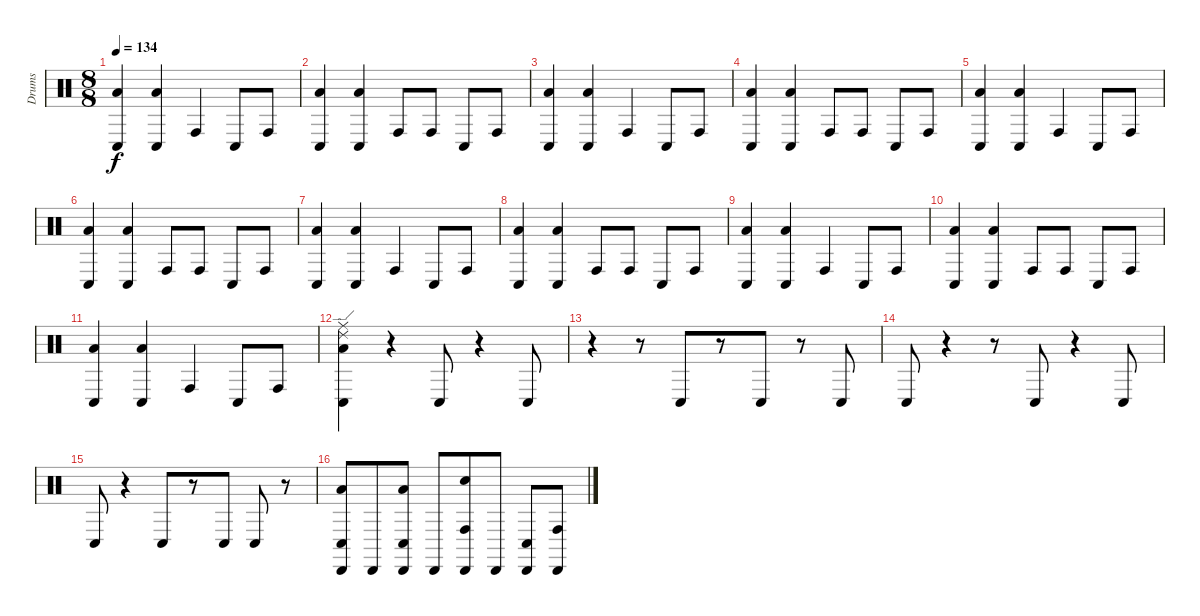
\track ("Drums" "Drums") {instrument percussion}
\staff {score}
\articulation defaults
\ts (8 8)
\tempo 134
\clef neutral
\ks c
("Low Tom (hit)" "Conga low (hit)").4{dy f} ("Low Tom (hit)" "Conga low (hit)").4 "Conga high (hit)".4 "Conga low (hit)".8 "Conga high (hit)".8 |
("Low Tom (hit)" "Conga low (hit)").4 ("Low Tom (hit)" "Conga low (hit)").4 "Conga high (hit)".8 "Conga high (hit)".8 "Conga low (hit)".8 "Conga high (hit)".8 |
("Low Tom (hit)" "Conga low (hit)").4 ("Low Tom (hit)" "Conga low (hit)").4 "Conga high (hit)".4 "Conga low (hit)".8 "Conga high (hit)".8 |
("Low Tom (hit)" "Conga low (hit)").4 ("Low Tom (hit)" "Conga low (hit)").4 "Conga high (hit)".8 "Conga high (hit)".8 "Conga low (hit)".8 "Conga high (hit)".8 |
("Low Tom (hit)" "Conga low (hit)").4 ("Low Tom (hit)" "Conga low (hit)").4 "Conga high (hit)".4 "Conga low (hit)".8 "Conga high (hit)".8 |
("Low Tom (hit)" "Conga low (hit)").4 ("Low Tom (hit)" "Conga low (hit)").4 "Conga high (hit)".8 "Conga high (hit)".8 "Conga low (hit)".8 "Conga high (hit)".8 |
("Low Tom (hit)" "Conga low (hit)").4 ("Low Tom (hit)" "Conga low (hit)").4 "Conga high (hit)".4 "Conga low (hit)".8 "Conga high (hit)".8 |
("Low Tom (hit)" "Conga low (hit)").4 ("Low Tom (hit)" "Conga low (hit)").4 "Conga high (hit)".8 "Conga high (hit)".8 "Conga low (hit)".8 "Conga high (hit)".8 |
("Low Tom (hit)" "Conga low (hit)").4 ("Low Tom (hit)" "Conga low (hit)").4 "Conga high (hit)".4 "Conga low (hit)".8 "Conga high (hit)".8 |
("Low Tom (hit)" "Conga low (hit)").4 ("Low Tom (hit)" "Conga low (hit)").4 "Conga high (hit)".8 "Conga high (hit)".8 "Conga low (hit)".8 "Conga high (hit)".8 |
("Low Tom (hit)" "Conga low (hit)").4 ("Low Tom (hit)" "Conga low (hit)").4 "Conga high (hit)".4 "Conga low (hit)".8 "Conga high (hit)".8 |
("Ride (middle)" "Ride (edge) 2" "Conga low (hit)" "Low Tom (hit)").4 r.4 "Conga low (hit)".8 r.4 "Conga low (hit)".8 |
r.4 r.8 "Conga low (hit)".8 r.8 "Conga low (hit)".8 r.8 "Conga low (hit)".8 |
"Conga low (hit)".8 r.4 r.8 "Conga low (hit)".8 r.4 "Conga low (hit)".8 |
"Conga low (hit)".8 r.4 "Conga low (hit)".8 r.8 "Conga low (hit)".8 "Conga low (hit)".8 r.8 |
("Cabasa (hit)" "Low Tom (hit)" "Conga low (hit)").8 "Cabasa (hit)".8 ("Cabasa (hit)" "Low Tom (hit)" "Conga low (hit)").8 "Cabasa (hit)".8 ("Electric Snare (hit)" "Cabasa (hit)" "Conga high (hit)").8 "Cabasa (hit)".8 ("Cabasa (hit)" "Conga low (hit)").8 ("Cabasa (hit)" "Conga high (hit)").8
